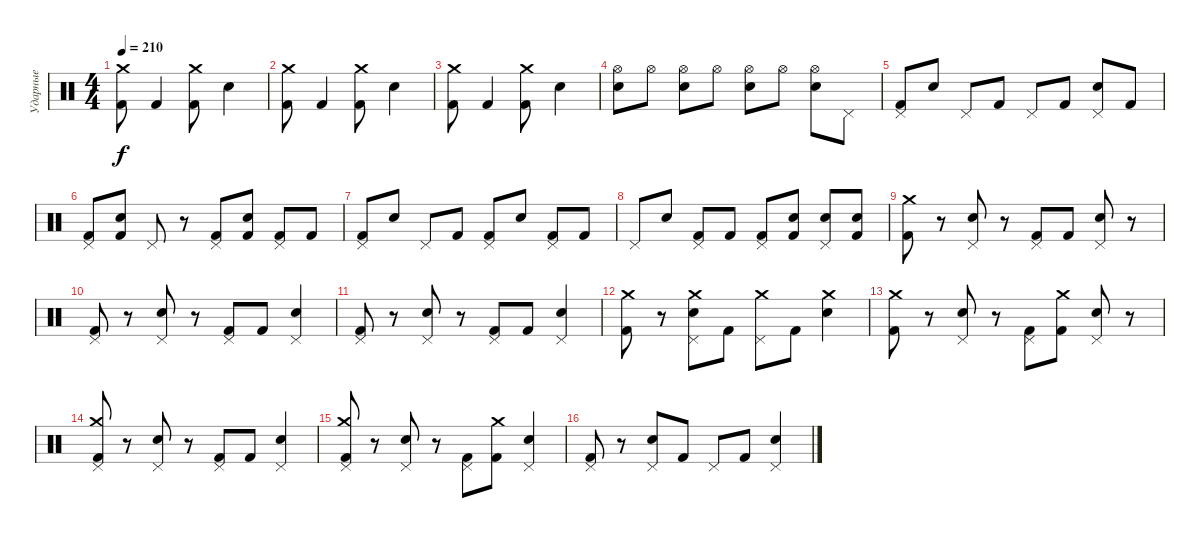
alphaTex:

\track ("Ударные" "Ударные") {instrument percussion}
\staff {score}
\articulation defaults
\ts (4 4)
\tempo 210
\clef neutral
\ks c
("Kick (hit) 2" "Crash medium (hit)").8{dy f} "Kick (hit) 2".4 ("Kick (hit) 2" "Crash medium (hit)").8 "Electric Snare (hit)".4 |
("Kick (hit) 2" "Crash medium (hit)").8 "Kick (hit) 2".4 ("Kick (hit) 2" "Crash medium (hit)").8 "Electric Snare (hit)".4 |
("Kick (hit) 2" "Crash medium (hit)").8 "Kick (hit) 2".4 ("Kick (hit) 2" "Crash medium (hit)").8 "Electric Snare (hit)".4 |
("Hi-Hat (open)" "Electric Snare (hit)").8 "Hi-Hat (open)".8 ("Hi-Hat (open)" "Electric Snare (hit)").8 "Hi-Hat (open)".8 ("Hi-Hat (open)" "Electric Snare (hit)").8 "Hi-Hat (open)".8 ("Hi-Hat (open)" "Electric Snare (hit)").8 "Pedal Hi-Hat (hit)".8 |
("Pedal Hi-Hat (hit)" "Kick (hit) 2").8 "Electric Snare (hit)".8 "Pedal Hi-Hat (hit)".8 "Kick (hit) 2".8 "Pedal Hi-Hat (hit)".8 "Kick (hit) 2".8 ("Pedal Hi-Hat (hit)" "Electric Snare (hit)").8 "Kick (hit) 2".8 |
("Pedal Hi-Hat (hit)" "Kick (hit) 2").8 ("Electric Snare (hit)" "Kick (hit) 2").8 "Pedal Hi-Hat (hit)".8 r.8 ("Pedal Hi-Hat (hit)" "Kick (hit) 2").8 ("Electric Snare (hit)" "Kick (hit) 2").8 ("Pedal Hi-Hat (hit)" "Kick (hit) 2").8 "Kick (hit) 2".8 |
("Pedal Hi-Hat (hit)" "Kick (hit) 2").8 "Electric Snare (hit)".8 "Pedal Hi-Hat (hit)".8 "Kick (hit) 2".8 ("Pedal Hi-Hat (hit)" "Kick (hit) 2").8 "Electric Snare (hit)".8 ("Pedal Hi-Hat (hit)" "Kick (hit) 2").8 "Kick (hit) 2".8 |
"Pedal Hi-Hat (hit)".8 "Electric Snare (hit)".8 ("Pedal Hi-Hat (hit)" "Kick (hit) 2").8 "Kick (hit) 2".8 ("Pedal Hi-Hat (hit)" "Kick (hit) 2").8 ("Electric Snare (hit)" "Kick (hit) 2").8 ("Pedal Hi-Hat (hit)" "Electric Snare (hit)").8 ("Electric Snare (hit)" "Kick (hit) 2").8 |
("Kick (hit) 2" "Crash medium (hit)").8 r.8 ("Pedal Hi-Hat (hit)" "Electric Snare (hit)").8 r.8 ("Kick (hit) 2" "Pedal Hi-Hat (hit)").8 "Kick (hit) 2".8 ("Electric Snare (hit)" "Pedal Hi-Hat (hit)").8 r.8 |
("Kick (hit) 2" "Pedal Hi-Hat (hit)").8 r.8 ("Pedal Hi-Hat (hit)" "Electric Snare (hit)").8 r.8 ("Kick (hit) 2" "Pedal Hi-Hat (hit)").8 "Kick (hit) 2".8 ("Electric Snare (hit)" "Pedal Hi-Hat (hit)").4 |
("Kick (hit) 2" "Pedal Hi-Hat (hit)").8 r.8 ("Pedal Hi-Hat (hit)" "Electric Snare (hit)").8 r.8 ("Kick (hit) 2" "Pedal Hi-Hat (hit)").8 "Kick (hit) 2".8 ("Electric Snare (hit)" "Pedal Hi-Hat (hit)").4 |
("Kick (hit) 2" "Crash medium (hit)").8 r.8 ("Pedal Hi-Hat (hit)" "Electric Snare (hit)" "Crash medium (hit)").8 "Kick (hit) 2".8 ("Pedal Hi-Hat (hit)" "Crash medium (hit)").8 "Kick (hit) 2".8 ("Electric Snare (hit)" "Crash medium (hit)").4 |
("Kick (hit) 2" "Crash medium (hit)").8 r.8 ("Pedal Hi-Hat (hit)" "Electric Snare (hit)").8 r.8 ("Kick (hit) 2" "Pedal Hi-Hat (hit)").8 ("Kick (hit) 2" "Crash medium (hit)").8 ("Electric Snare (hit)" "Pedal Hi-Hat (hit)").8 r.8 |
("Kick (hit) 2" "Pedal Hi-Hat (hit)" "Crash medium (hit)").8 r.8 ("Pedal Hi-Hat (hit)" "Electric Snare (hit)").8 r.8 ("Kick (hit) 2" "Pedal Hi-Hat (hit)").8 "Kick (hit) 2".8 ("Electric Snare (hit)" "Pedal Hi-Hat (hit)").4 |
("Kick (hit) 2" "Pedal Hi-Hat (hit)" "Crash medium (hit)").8 r.8 ("Pedal Hi-Hat (hit)" "Electric Snare (hit)").8 r.8 ("Kick (hit) 2" "Pedal Hi-Hat (hit)").8 ("Kick (hit) 2" "Crash medium (hit)").8 ("Electric Snare (hit)" "Pedal Hi-Hat (hit)").4 |
("Kick (hit) 2" "Pedal Hi-Hat (hit)").8 r.8 ("Pedal Hi-Hat (hit)" "Electric Snare (hit)").8 "Kick (hit) 2".8 "Pedal Hi-Hat (hit)".8 "Kick (hit) 2".8 ("Electric Snare (hit)" "Pedal Hi-Hat (hit)").4
